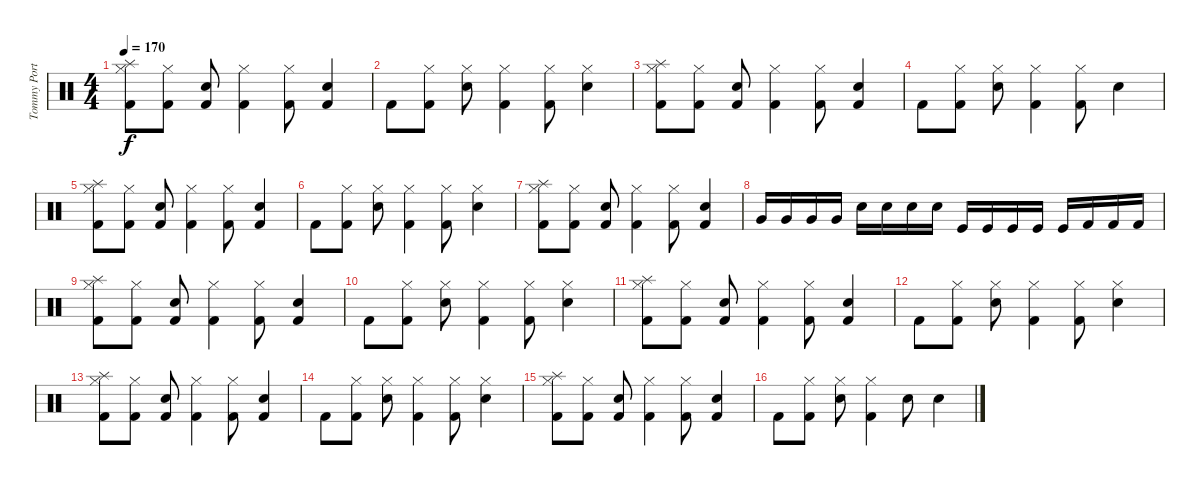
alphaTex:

\track ("Tommy Portimo" "Tommy Port") {instrument percussion}
\staff {score}
\articulation defaults
\ts (4 4)
\tempo 170
\clef neutral
\ks c
("Splash (hit)" "Kick (hit) 2" "Hi-Hat (closed)").8{dy f} ("Kick (hit) 2" "Hi-Hat (closed)").8 ("Electric Snare (hit)" "Kick (hit) 2").8 ("Kick (hit) 2" "Hi-Hat (closed)").4 ("Kick (hit) 2" "Hi-Hat (closed)").8 ("Electric Snare (hit)" "Kick (hit) 2").4 |
"Kick (hit) 2".8 ("Kick (hit) 2" "Hi-Hat (closed)").8 ("Electric Snare (hit)" "Hi-Hat (closed)").8 ("Kick (hit) 2" "Hi-Hat (closed)").4 ("Kick (hit) 2" "Hi-Hat (closed)").8 ("Electric Snare (hit)" "Hi-Hat (closed)").4 |
("Splash (hit)" "Kick (hit) 2" "Hi-Hat (closed)").8 ("Kick (hit) 2" "Hi-Hat (closed)").8 ("Electric Snare (hit)" "Kick (hit) 2").8 ("Kick (hit) 2" "Hi-Hat (closed)").4 ("Kick (hit) 2" "Hi-Hat (closed)").8 ("Electric Snare (hit)" "Kick (hit) 2").4 |
"Kick (hit) 2".8 ("Kick (hit) 2" "Hi-Hat (closed)").8 ("Electric Snare (hit)" "Hi-Hat (closed)").8 ("Kick (hit) 2" "Hi-Hat (closed)").4 ("Kick (hit) 2" "Hi-Hat (closed)").8 "Electric Snare (hit)".4 |
("Splash (hit)" "Kick (hit) 2" "Hi-Hat (closed)").8 ("Kick (hit) 2" "Hi-Hat (closed)").8 ("Electric Snare (hit)" "Kick (hit) 2").8 ("Kick (hit) 2" "Hi-Hat (closed)").4 ("Kick (hit) 2" "Hi-Hat (closed)").8 ("Electric Snare (hit)" "Kick (hit) 2").4 |
"Kick (hit) 2".8 ("Kick (hit) 2" "Hi-Hat (closed)").8 ("Electric Snare (hit)" "Hi-Hat (closed)").8 ("Kick (hit) 2" "Hi-Hat (closed)").4 ("Kick (hit) 2" "Hi-Hat (closed)").8 ("Electric Snare (hit)" "Hi-Hat (closed)").4 |
("Splash (hit)" "Kick (hit) 2" "Hi-Hat (closed)").8 ("Kick (hit) 2" "Hi-Hat (closed)").8 ("Electric Snare (hit)" "Kick (hit) 2").8 ("Kick (hit) 2" "Hi-Hat (closed)").4 ("Kick (hit) 2" "Hi-Hat (closed)").8 ("Electric Snare (hit)" "Kick (hit) 2").4 |
"Very Low Tom (hit)".16 "Very Low Tom (hit)".16 "Very Low Tom (hit)".16 "Very Low Tom (hit)".16 "Electric Snare (hit)".16 "Electric Snare (hit)".16 "Electric Snare (hit)".16 "Electric Snare (hit)".16 "Kick (hit)".16 "Kick (hit)".16 "Kick (hit)".16 "Kick (hit)".16 "Kick (hit)".16 "Kick (hit) 2".16 "Kick (hit) 2".16 "Kick (hit) 2".16 |
("Splash (hit)" "Kick (hit) 2" "Hi-Hat (closed)").8 ("Kick (hit) 2" "Hi-Hat (closed)").8 ("Electric Snare (hit)" "Kick (hit) 2").8 ("Kick (hit) 2" "Hi-Hat (closed)").4 ("Kick (hit) 2" "Hi-Hat (closed)").8 ("Electric Snare (hit)" "Kick (hit) 2").4 |
"Kick (hit) 2".8 ("Kick (hit) 2" "Hi-Hat (closed)").8 ("Electric Snare (hit)" "Hi-Hat (closed)").8 ("Kick (hit) 2" "Hi-Hat (closed)").4 ("Kick (hit) 2" "Hi-Hat (closed)").8 ("Electric Snare (hit)" "Hi-Hat (closed)").4 |
("Splash (hit)" "Kick (hit) 2" "Hi-Hat (closed)").8 ("Kick (hit) 2" "Hi-Hat (closed)").8 ("Electric Snare (hit)" "Kick (hit) 2").8 ("Kick (hit) 2" "Hi-Hat (closed)").4 ("Kick (hit) 2" "Hi-Hat (closed)").8 ("Electric Snare (hit)" "Kick (hit) 2").4 |
"Kick (hit) 2".8 ("Kick (hit) 2" "Hi-Hat (closed)").8 ("Electric Snare (hit)" "Hi-Hat (closed)").8 ("Kick (hit) 2" "Hi-Hat (closed)").4 ("Kick (hit) 2" "Hi-Hat (closed)").8 ("Electric Snare (hit)" "Hi-Hat (closed)").4 |
("Splash (hit)" "Kick (hit) 2" "Hi-Hat (closed)").8 ("Kick (hit) 2" "Hi-Hat (closed)").8 ("Electric Snare (hit)" "Kick (hit) 2").8 ("Kick (hit) 2" "Hi-Hat (closed)").4 ("Kick (hit) 2" "Hi-Hat (closed)").8 ("Electric Snare (hit)" "Kick (hit) 2").4 |
"Kick (hit) 2".8 ("Kick (hit) 2" "Hi-Hat (closed)").8 ("Electric Snare (hit)" "Hi-Hat (closed)").8 ("Kick (hit) 2" "Hi-Hat (closed)").4 ("Kick (hit) 2" "Hi-Hat (closed)").8 ("Electric Snare (hit)" "Hi-Hat (closed)").4 |
("Splash (hit)" "Kick (hit) 2" "Hi-Hat (closed)").8 ("Kick (hit) 2" "Hi-Hat (closed)").8 ("Electric Snare (hit)" "Kick (hit) 2").8 ("Kick (hit) 2" "Hi-Hat (closed)").4 ("Kick (hit) 2" "Hi-Hat (closed)").8 ("Electric Snare (hit)" "Kick (hit) 2").4 |
"Kick (hit) 2".8 ("Kick (hit) 2" "Hi-Hat (closed)").8 ("Electric Snare (hit)" "Hi-Hat (closed)").8 ("Kick (hit) 2" "Hi-Hat (closed)").4 "Electric Snare (hit)".8 "Electric Snare (hit)".4
